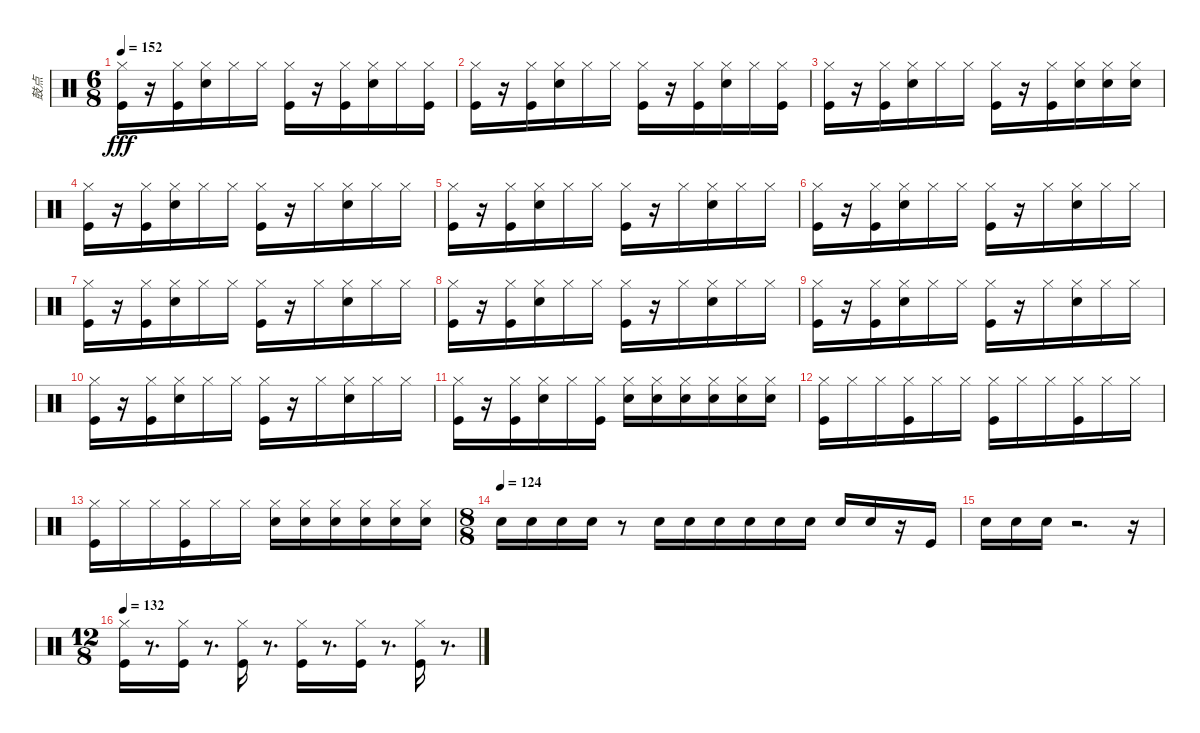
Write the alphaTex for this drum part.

\track ("鼓点" "鼓点") {instrument percussion}
\staff {score}
\articulation defaults
\ts (6 8)
\tempo 152
\clef neutral
\ks c
("Kick (hit)" "Hi-Hat (closed)").16{dy fff} r.16 ("Kick (hit)" "Hi-Hat (closed)").16 ("Snare (hit) 2" "Hi-Hat (closed)").16 "Hi-Hat (closed)".16 "Hi-Hat (closed)".16 ("Kick (hit)" "Hi-Hat (closed)").16 r.16 ("Kick (hit)" "Hi-Hat (closed)").16 ("Snare (hit) 2" "Hi-Hat (closed)").16 "Hi-Hat (closed)".16 ("Kick (hit)" "Hi-Hat (closed)").16 |
("Kick (hit)" "Hi-Hat (closed)").16 r.16 ("Kick (hit)" "Hi-Hat (closed)").16 ("Snare (hit) 2" "Hi-Hat (closed)").16 "Hi-Hat (closed)".16 "Hi-Hat (closed)".16 ("Kick (hit)" "Hi-Hat (closed)").16 r.16 ("Kick (hit)" "Hi-Hat (closed)").16 ("Snare (hit) 2" "Hi-Hat (closed)").16 "Hi-Hat (closed)".16 ("Kick (hit)" "Hi-Hat (closed)").16 |
("Kick (hit)" "Hi-Hat (closed)").16 r.16 ("Kick (hit)" "Hi-Hat (closed)").16 ("Snare (hit) 2" "Hi-Hat (closed)").16 "Hi-Hat (closed)".16 "Hi-Hat (closed)".16 ("Kick (hit)" "Hi-Hat (closed)").16 r.16 ("Kick (hit)" "Hi-Hat (closed)").16 ("Snare (hit) 2" "Hi-Hat (closed)").16 ("Snare (hit) 2" "Hi-Hat (closed)").16 ("Snare (hit) 2" "Hi-Hat (closed)").16 |
("Kick (hit)" "Hi-Hat (closed)").16 r.16 ("Kick (hit)" "Hi-Hat (closed)").16 ("Snare (hit) 2" "Hi-Hat (closed)").16 "Hi-Hat (closed)".16 "Hi-Hat (closed)".16 ("Kick (hit)" "Hi-Hat (closed)").16 r.16 "Hi-Hat (closed)".16 ("Snare (hit) 2" "Hi-Hat (closed)").16 "Hi-Hat (closed)".16 "Hi-Hat (closed)".16 |
("Kick (hit)" "Hi-Hat (closed)").16 r.16 ("Kick (hit)" "Hi-Hat (closed)").16 ("Snare (hit) 2" "Hi-Hat (closed)").16 "Hi-Hat (closed)".16 "Hi-Hat (closed)".16 ("Kick (hit)" "Hi-Hat (closed)").16 r.16 "Hi-Hat (closed)".16 ("Snare (hit) 2" "Hi-Hat (closed)").16 "Hi-Hat (closed)".16 "Hi-Hat (closed)".16 |
("Kick (hit)" "Hi-Hat (closed)").16 r.16 ("Kick (hit)" "Hi-Hat (closed)").16 ("Snare (hit) 2" "Hi-Hat (closed)").16 "Hi-Hat (closed)".16 "Hi-Hat (closed)".16 ("Kick (hit)" "Hi-Hat (closed)").16 r.16 "Hi-Hat (closed)".16 ("Snare (hit) 2" "Hi-Hat (closed)").16 "Hi-Hat (closed)".16 "Hi-Hat (closed)".16 |
("Kick (hit)" "Hi-Hat (closed)").16 r.16 ("Kick (hit)" "Hi-Hat (closed)").16 ("Snare (hit) 2" "Hi-Hat (closed)").16 "Hi-Hat (closed)".16 "Hi-Hat (closed)".16 ("Kick (hit)" "Hi-Hat (closed)").16 r.16 "Hi-Hat (closed)".16 ("Snare (hit) 2" "Hi-Hat (closed)").16 "Hi-Hat (closed)".16 "Hi-Hat (closed)".16 |
("Kick (hit)" "Hi-Hat (closed)").16 r.16 ("Kick (hit)" "Hi-Hat (closed)").16 ("Snare (hit) 2" "Hi-Hat (closed)").16 "Hi-Hat (closed)".16 "Hi-Hat (closed)".16 ("Kick (hit)" "Hi-Hat (closed)").16 r.16 "Hi-Hat (closed)".16 ("Snare (hit) 2" "Hi-Hat (closed)").16 "Hi-Hat (closed)".16 "Hi-Hat (closed)".16 |
("Kick (hit)" "Hi-Hat (closed)").16 r.16 ("Kick (hit)" "Hi-Hat (closed)").16 ("Snare (hit) 2" "Hi-Hat (closed)").16 "Hi-Hat (closed)".16 "Hi-Hat (closed)".16 ("Kick (hit)" "Hi-Hat (closed)").16 r.16 "Hi-Hat (closed)".16 ("Snare (hit) 2" "Hi-Hat (closed)").16 "Hi-Hat (closed)".16 "Hi-Hat (closed)".16 |
("Kick (hit)" "Hi-Hat (closed)").16 r.16 ("Kick (hit)" "Hi-Hat (closed)").16 ("Snare (hit) 2" "Hi-Hat (closed)").16 "Hi-Hat (closed)".16 "Hi-Hat (closed)".16 ("Kick (hit)" "Hi-Hat (closed)").16 r.16 "Hi-Hat (closed)".16 ("Snare (hit) 2" "Hi-Hat (closed)").16 "Hi-Hat (closed)".16 "Hi-Hat (closed)".16 |
("Kick (hit)" "Hi-Hat (closed)").16 r.16 ("Kick (hit)" "Hi-Hat (closed)").16 ("Snare (hit) 2" "Hi-Hat (closed)").16 "Hi-Hat (closed)".16 ("Kick (hit)" "Hi-Hat (closed)").16 ("Snare (hit) 2" "Hi-Hat (closed)").16 ("Snare (hit) 2" "Hi-Hat (closed)").16 ("Snare (hit) 2" "Hi-Hat (closed)").16 ("Snare (hit) 2" "Hi-Hat (closed)").16 ("Snare (hit) 2" "Hi-Hat (closed)").16 ("Snare (hit) 2" "Hi-Hat (closed)").16 |
("Kick (hit)" "Hi-Hat (closed)").16 "Hi-Hat (closed)".16 "Hi-Hat (closed)".16 ("Kick (hit)" "Hi-Hat (closed)").16 "Hi-Hat (closed)".16 "Hi-Hat (closed)".16 ("Kick (hit)" "Hi-Hat (closed)").16 "Hi-Hat (closed)".16 "Hi-Hat (closed)".16 ("Kick (hit)" "Hi-Hat (closed)").16 "Hi-Hat (closed)".16 "Hi-Hat (closed)".16 |
("Kick (hit)" "Hi-Hat (closed)").16 "Hi-Hat (closed)".16 "Hi-Hat (closed)".16 ("Kick (hit)" "Hi-Hat (closed)").16 "Hi-Hat (closed)".16 "Hi-Hat (closed)".16 ("Snare (hit) 2" "Hi-Hat (closed)").16 ("Snare (hit) 2" "Hi-Hat (closed)").16 ("Snare (hit) 2" "Hi-Hat (closed)").16 ("Snare (hit) 2" "Hi-Hat (closed)").16 ("Snare (hit) 2" "Hi-Hat (closed)").16 ("Snare (hit) 2" "Hi-Hat (closed)").16 |
\ts (8 8)
\tempo (124)
"Snare (hit) 2".16 "Snare (hit) 2".16 "Snare (hit) 2".16 "Snare (hit) 2".16 r.8 "Snare (hit) 2".16 "Snare (hit) 2".16 "Snare (hit) 2".16 "Snare (hit) 2".16 "Snare (hit) 2".16 "Snare (hit) 2".16 "Snare (hit) 2".16 "Snare (hit) 2".16 r.16 "Kick (hit)".16 |
"Snare (hit) 2".16 "Snare (hit) 2".16 "Snare (hit) 2".16 r.2{d} r.16 |
\ts (12 8)
\tempo 132
("Kick (hit)" "Hi-Hat (closed)").16 r.8{d} ("Kick (hit)" "Hi-Hat (closed)").16 r.8{d} ("Kick (hit)" "Hi-Hat (closed)").16 r.8{d} ("Kick (hit)" "Hi-Hat (closed)").16 r.8{d} ("Kick (hit)" "Hi-Hat (closed)").16 r.8{d} ("Kick (hit)" "Hi-Hat (closed)").16 r.8{d}
